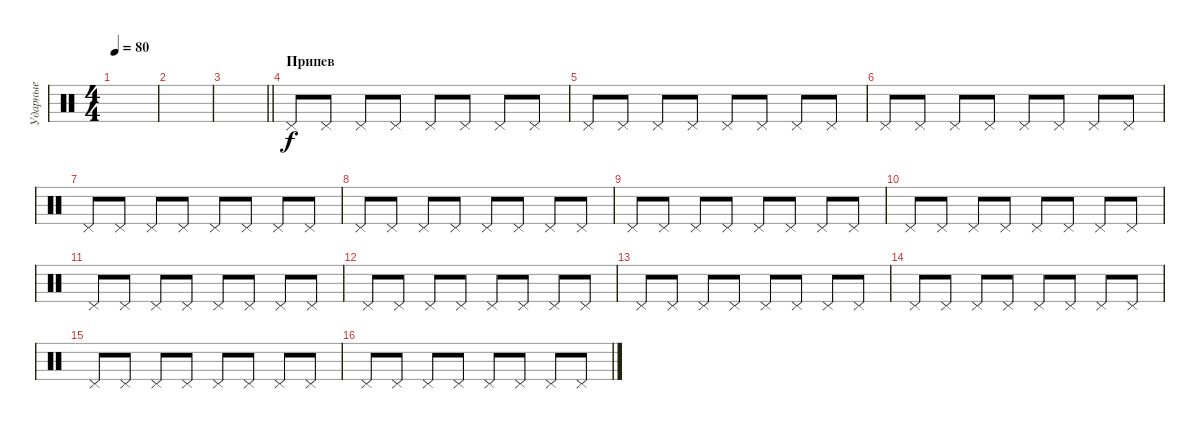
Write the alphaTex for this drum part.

\track ("Ударные" "Ударные") {instrument percussion}
\staff {score}
\articulation defaults
\ts (4 4)
\tempo 80
\clef neutral
\ks c
|
|
\barLineRight lightlight
|
\section ("" "Припев")
"Pedal Hi-Hat (hit)".8 "Pedal Hi-Hat (hit)".8 "Pedal Hi-Hat (hit)".8 "Pedal Hi-Hat (hit)".8 "Pedal Hi-Hat (hit)".8 "Pedal Hi-Hat (hit)".8 "Pedal Hi-Hat (hit)".8 "Pedal Hi-Hat (hit)".8 |
"Pedal Hi-Hat (hit)".8 "Pedal Hi-Hat (hit)".8 "Pedal Hi-Hat (hit)".8 "Pedal Hi-Hat (hit)".8 "Pedal Hi-Hat (hit)".8 "Pedal Hi-Hat (hit)".8 "Pedal Hi-Hat (hit)".8 "Pedal Hi-Hat (hit)".8 |
"Pedal Hi-Hat (hit)".8 "Pedal Hi-Hat (hit)".8 "Pedal Hi-Hat (hit)".8 "Pedal Hi-Hat (hit)".8 "Pedal Hi-Hat (hit)".8 "Pedal Hi-Hat (hit)".8 "Pedal Hi-Hat (hit)".8 "Pedal Hi-Hat (hit)".8 |
"Pedal Hi-Hat (hit)".8 "Pedal Hi-Hat (hit)".8 "Pedal Hi-Hat (hit)".8 "Pedal Hi-Hat (hit)".8 "Pedal Hi-Hat (hit)".8 "Pedal Hi-Hat (hit)".8 "Pedal Hi-Hat (hit)".8 "Pedal Hi-Hat (hit)".8 |
"Pedal Hi-Hat (hit)".8 "Pedal Hi-Hat (hit)".8 "Pedal Hi-Hat (hit)".8 "Pedal Hi-Hat (hit)".8 "Pedal Hi-Hat (hit)".8 "Pedal Hi-Hat (hit)".8 "Pedal Hi-Hat (hit)".8 "Pedal Hi-Hat (hit)".8 |
"Pedal Hi-Hat (hit)".8 "Pedal Hi-Hat (hit)".8 "Pedal Hi-Hat (hit)".8 "Pedal Hi-Hat (hit)".8 "Pedal Hi-Hat (hit)".8 "Pedal Hi-Hat (hit)".8 "Pedal Hi-Hat (hit)".8 "Pedal Hi-Hat (hit)".8 |
"Pedal Hi-Hat (hit)".8 "Pedal Hi-Hat (hit)".8 "Pedal Hi-Hat (hit)".8 "Pedal Hi-Hat (hit)".8 "Pedal Hi-Hat (hit)".8 "Pedal Hi-Hat (hit)".8 "Pedal Hi-Hat (hit)".8 "Pedal Hi-Hat (hit)".8 |
"Pedal Hi-Hat (hit)".8 "Pedal Hi-Hat (hit)".8 "Pedal Hi-Hat (hit)".8 "Pedal Hi-Hat (hit)".8 "Pedal Hi-Hat (hit)".8 "Pedal Hi-Hat (hit)".8 "Pedal Hi-Hat (hit)".8 "Pedal Hi-Hat (hit)".8 |
"Pedal Hi-Hat (hit)".8 "Pedal Hi-Hat (hit)".8 "Pedal Hi-Hat (hit)".8 "Pedal Hi-Hat (hit)".8 "Pedal Hi-Hat (hit)".8 "Pedal Hi-Hat (hit)".8 "Pedal Hi-Hat (hit)".8 "Pedal Hi-Hat (hit)".8 |
"Pedal Hi-Hat (hit)".8 "Pedal Hi-Hat (hit)".8 "Pedal Hi-Hat (hit)".8 "Pedal Hi-Hat (hit)".8 "Pedal Hi-Hat (hit)".8 "Pedal Hi-Hat (hit)".8 "Pedal Hi-Hat (hit)".8 "Pedal Hi-Hat (hit)".8 |
"Pedal Hi-Hat (hit)".8 "Pedal Hi-Hat (hit)".8 "Pedal Hi-Hat (hit)".8 "Pedal Hi-Hat (hit)".8 "Pedal Hi-Hat (hit)".8 "Pedal Hi-Hat (hit)".8 "Pedal Hi-Hat (hit)".8 "Pedal Hi-Hat (hit)".8 |
"Pedal Hi-Hat (hit)".8 "Pedal Hi-Hat (hit)".8 "Pedal Hi-Hat (hit)".8 "Pedal Hi-Hat (hit)".8 "Pedal Hi-Hat (hit)".8 "Pedal Hi-Hat (hit)".8 "Pedal Hi-Hat (hit)".8 "Pedal Hi-Hat (hit)".8 |
"Pedal Hi-Hat (hit)".8 "Pedal Hi-Hat (hit)".8 "Pedal Hi-Hat (hit)".8 "Pedal Hi-Hat (hit)".8 "Pedal Hi-Hat (hit)".8 "Pedal Hi-Hat (hit)".8 "Pedal Hi-Hat (hit)".8 "Pedal Hi-Hat (hit)".8
